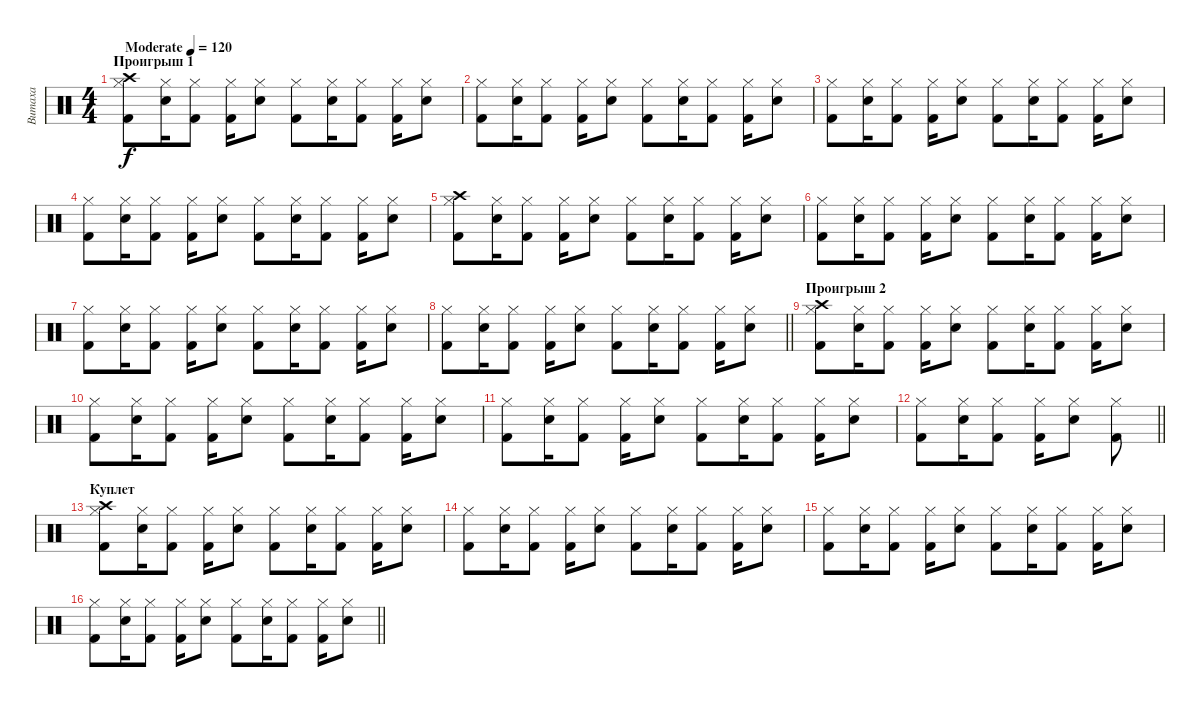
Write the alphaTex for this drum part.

\track ("Витаха" "Витаха") {instrument percussion}
\staff {score}
\articulation defaults
\ts (4 4)
\section ("" "Проигрыш 1")
\tempo (120 "Moderate")
\clef neutral
\ks c
("Kick (hit) 2" "Crash high (hit)" "Hi-Hat (closed)").8{dy f} ("Electric Snare (hit)" "Hi-Hat (closed)").16 ("Kick (hit) 2" "Hi-Hat (closed)").8 ("Kick (hit) 2" "Hi-Hat (closed)").16 ("Electric Snare (hit)" "Hi-Hat (closed)").8 ("Kick (hit) 2" "Hi-Hat (closed)").8 ("Electric Snare (hit)" "Hi-Hat (closed)").16 ("Kick (hit) 2" "Hi-Hat (closed)").8 ("Kick (hit) 2" "Hi-Hat (closed)").16 ("Electric Snare (hit)" "Hi-Hat (closed)").8 |
("Kick (hit) 2" "Hi-Hat (closed)").8 ("Electric Snare (hit)" "Hi-Hat (closed)").16 ("Kick (hit) 2" "Hi-Hat (closed)").8 ("Kick (hit) 2" "Hi-Hat (closed)").16 ("Electric Snare (hit)" "Hi-Hat (closed)").8 ("Kick (hit) 2" "Hi-Hat (closed)").8 ("Electric Snare (hit)" "Hi-Hat (closed)").16 ("Kick (hit) 2" "Hi-Hat (closed)").8 ("Kick (hit) 2" "Hi-Hat (closed)").16 ("Electric Snare (hit)" "Hi-Hat (closed)").8 |
("Kick (hit) 2" "Hi-Hat (closed)").8 ("Electric Snare (hit)" "Hi-Hat (closed)").16 ("Kick (hit) 2" "Hi-Hat (closed)").8 ("Kick (hit) 2" "Hi-Hat (closed)").16 ("Electric Snare (hit)" "Hi-Hat (closed)").8 ("Kick (hit) 2" "Hi-Hat (closed)").8 ("Electric Snare (hit)" "Hi-Hat (closed)").16 ("Kick (hit) 2" "Hi-Hat (closed)").8 ("Kick (hit) 2" "Hi-Hat (closed)").16 ("Electric Snare (hit)" "Hi-Hat (closed)").8 |
("Kick (hit) 2" "Hi-Hat (closed)").8 ("Electric Snare (hit)" "Hi-Hat (closed)").16 ("Kick (hit) 2" "Hi-Hat (closed)").8 ("Kick (hit) 2" "Hi-Hat (closed)").16 ("Electric Snare (hit)" "Hi-Hat (closed)").8 ("Kick (hit) 2" "Hi-Hat (closed)").8 ("Electric Snare (hit)" "Hi-Hat (closed)").16 ("Kick (hit) 2" "Hi-Hat (closed)").8 ("Kick (hit) 2" "Hi-Hat (closed)").16 ("Electric Snare (hit)" "Hi-Hat (closed)").8 |
("Kick (hit) 2" "Crash high (hit)" "Hi-Hat (closed)").8 ("Electric Snare (hit)" "Hi-Hat (closed)").16 ("Kick (hit) 2" "Hi-Hat (closed)").8 ("Kick (hit) 2" "Hi-Hat (closed)").16 ("Electric Snare (hit)" "Hi-Hat (closed)").8 ("Kick (hit) 2" "Hi-Hat (closed)").8 ("Electric Snare (hit)" "Hi-Hat (closed)").16 ("Kick (hit) 2" "Hi-Hat (closed)").8 ("Kick (hit) 2" "Hi-Hat (closed)").16 ("Electric Snare (hit)" "Hi-Hat (closed)").8 |
("Kick (hit) 2" "Hi-Hat (closed)").8 ("Electric Snare (hit)" "Hi-Hat (closed)").16 ("Kick (hit) 2" "Hi-Hat (closed)").8 ("Kick (hit) 2" "Hi-Hat (closed)").16 ("Electric Snare (hit)" "Hi-Hat (closed)").8 ("Kick (hit) 2" "Hi-Hat (closed)").8 ("Electric Snare (hit)" "Hi-Hat (closed)").16 ("Kick (hit) 2" "Hi-Hat (closed)").8 ("Kick (hit) 2" "Hi-Hat (closed)").16 ("Electric Snare (hit)" "Hi-Hat (closed)").8 |
("Kick (hit) 2" "Hi-Hat (closed)").8 ("Electric Snare (hit)" "Hi-Hat (closed)").16 ("Kick (hit) 2" "Hi-Hat (closed)").8 ("Kick (hit) 2" "Hi-Hat (closed)").16 ("Electric Snare (hit)" "Hi-Hat (closed)").8 ("Kick (hit) 2" "Hi-Hat (closed)").8 ("Electric Snare (hit)" "Hi-Hat (closed)").16 ("Kick (hit) 2" "Hi-Hat (closed)").8 ("Kick (hit) 2" "Hi-Hat (closed)").16 ("Electric Snare (hit)" "Hi-Hat (closed)").8 |
\barLineRight lightlight
("Kick (hit) 2" "Hi-Hat (closed)").8 ("Electric Snare (hit)" "Hi-Hat (closed)").16 ("Kick (hit) 2" "Hi-Hat (closed)").8 ("Kick (hit) 2" "Hi-Hat (closed)").16 ("Electric Snare (hit)" "Hi-Hat (closed)").8 ("Kick (hit) 2" "Hi-Hat (closed)").8 ("Electric Snare (hit)" "Hi-Hat (closed)").16 ("Kick (hit) 2" "Hi-Hat (closed)").8 ("Kick (hit) 2" "Hi-Hat (closed)").16 ("Electric Snare (hit)" "Hi-Hat (closed)").8 |
\section ("" "Проигрыш 2")
("Kick (hit) 2" "Crash high (hit)" "Hi-Hat (closed)").8 ("Electric Snare (hit)" "Hi-Hat (closed)").16 ("Kick (hit) 2" "Hi-Hat (closed)").8 ("Kick (hit) 2" "Hi-Hat (closed)").16 ("Electric Snare (hit)" "Hi-Hat (closed)").8 ("Kick (hit) 2" "Hi-Hat (closed)").8 ("Electric Snare (hit)" "Hi-Hat (closed)").16 ("Kick (hit) 2" "Hi-Hat (closed)").8 ("Kick (hit) 2" "Hi-Hat (closed)").16 ("Electric Snare (hit)" "Hi-Hat (closed)").8 |
("Kick (hit) 2" "Hi-Hat (closed)").8 ("Electric Snare (hit)" "Hi-Hat (closed)").16 ("Kick (hit) 2" "Hi-Hat (closed)").8 ("Kick (hit) 2" "Hi-Hat (closed)").16 ("Electric Snare (hit)" "Hi-Hat (closed)").8 ("Kick (hit) 2" "Hi-Hat (closed)").8 ("Electric Snare (hit)" "Hi-Hat (closed)").16 ("Kick (hit) 2" "Hi-Hat (closed)").8 ("Kick (hit) 2" "Hi-Hat (closed)").16 ("Electric Snare (hit)" "Hi-Hat (closed)").8 |
("Kick (hit) 2" "Hi-Hat (closed)").8 ("Electric Snare (hit)" "Hi-Hat (closed)").16 ("Kick (hit) 2" "Hi-Hat (closed)").8 ("Kick (hit) 2" "Hi-Hat (closed)").16 ("Electric Snare (hit)" "Hi-Hat (closed)").8 ("Kick (hit) 2" "Hi-Hat (closed)").8 ("Electric Snare (hit)" "Hi-Hat (closed)").16 ("Kick (hit) 2" "Hi-Hat (closed)").8 ("Kick (hit) 2" "Hi-Hat (closed)").16 ("Electric Snare (hit)" "Hi-Hat (closed)").8 |
\barLineRight lightlight
("Kick (hit) 2" "Hi-Hat (closed)").8 ("Electric Snare (hit)" "Hi-Hat (closed)").16 ("Kick (hit) 2" "Hi-Hat (closed)").8 ("Kick (hit) 2" "Hi-Hat (closed)").16 ("Electric Snare (hit)" "Hi-Hat (closed)").8 ("Kick (hit) 2" "Hi-Hat (closed)").8 |
\section ("" "Куплет")
("Kick (hit) 2" "Crash high (hit)" "Hi-Hat (closed)").8 ("Electric Snare (hit)" "Hi-Hat (closed)").16 ("Kick (hit) 2" "Hi-Hat (closed)").8 ("Kick (hit) 2" "Hi-Hat (closed)").16 ("Electric Snare (hit)" "Hi-Hat (closed)").8 ("Kick (hit) 2" "Hi-Hat (closed)").8 ("Electric Snare (hit)" "Hi-Hat (closed)").16 ("Kick (hit) 2" "Hi-Hat (closed)").8 ("Kick (hit) 2" "Hi-Hat (closed)").16 ("Electric Snare (hit)" "Hi-Hat (closed)").8 |
("Kick (hit) 2" "Hi-Hat (closed)").8 ("Electric Snare (hit)" "Hi-Hat (closed)").16 ("Kick (hit) 2" "Hi-Hat (closed)").8 ("Kick (hit) 2" "Hi-Hat (closed)").16 ("Electric Snare (hit)" "Hi-Hat (closed)").8 ("Kick (hit) 2" "Hi-Hat (closed)").8 ("Electric Snare (hit)" "Hi-Hat (closed)").16 ("Kick (hit) 2" "Hi-Hat (closed)").8 ("Kick (hit) 2" "Hi-Hat (closed)").16 ("Electric Snare (hit)" "Hi-Hat (closed)").8 |
("Kick (hit) 2" "Hi-Hat (closed)").8 ("Electric Snare (hit)" "Hi-Hat (closed)").16 ("Kick (hit) 2" "Hi-Hat (closed)").8 ("Kick (hit) 2" "Hi-Hat (closed)").16 ("Electric Snare (hit)" "Hi-Hat (closed)").8 ("Kick (hit) 2" "Hi-Hat (closed)").8 ("Electric Snare (hit)" "Hi-Hat (closed)").16 ("Kick (hit) 2" "Hi-Hat (closed)").8 ("Kick (hit) 2" "Hi-Hat (closed)").16 ("Electric Snare (hit)" "Hi-Hat (closed)").8 |
\barLineRight lightlight
("Kick (hit) 2" "Hi-Hat (closed)").8 ("Electric Snare (hit)" "Hi-Hat (closed)").16 ("Kick (hit) 2" "Hi-Hat (closed)").8 ("Kick (hit) 2" "Hi-Hat (closed)").16 ("Electric Snare (hit)" "Hi-Hat (closed)").8 ("Kick (hit) 2" "Hi-Hat (closed)").8 ("Electric Snare (hit)" "Hi-Hat (closed)").16 ("Kick (hit) 2" "Hi-Hat (closed)").8 ("Kick (hit) 2" "Hi-Hat (closed)").16 ("Electric Snare (hit)" "Hi-Hat (closed)").8
